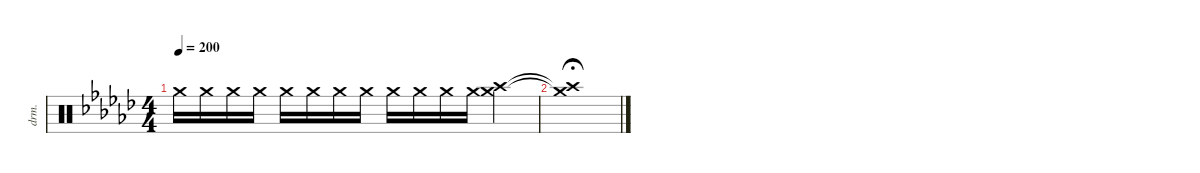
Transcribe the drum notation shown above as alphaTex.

\defaultSystemsLayout 4
\hideDynamics
\bracketExtendMode nobrackets
\otherSystemsTrackNameOrientation horizontal
\track ("Drums" "drm.") {defaultSystemsLayout 4 instrument percussion}
\staff {score}
\articulation defaults
\ts (4 4)
\tempo 200
\clef neutral
\ks gb "Crash medium (hit)"{acc forcenatural}.16{dy p beam Down} "Crash medium (hit)"{acc forcenatural}.16{dy mp beam Down} "Crash medium (hit)"{acc forcenatural}.16{beam Down} "Crash medium (hit)"{acc forcenatural}.16{beam Down} "Crash medium (hit)"{acc forcenatural}.16{beam Down} "Crash medium (hit)"{acc forcenatural}.16{dy mf beam Down} "Crash medium (hit)"{acc forcenatural}.16{beam Down} "Crash medium (hit)"{acc forcenatural}.16{beam Down} "Crash medium (hit)"{acc forcenatural}.16{beam Down} "Crash medium (hit)"{acc forcenatural}.16{dy f beam Down} "Crash medium (hit)"{acc forcenatural}.16{beam Down} "Crash medium (hit)"{acc forcenatural}.16{beam Down}
("Crash high (hit)"{acc forcenatural} "Crash medium (hit)"{acc forcenatural}).4{beam Down} |
\tempo (100 hide)
("Crash high (hit)"{t acc forcenatural} "Crash medium (hit)"{t acc forcenatural}).1{fermata (medium 1) beam Down}
